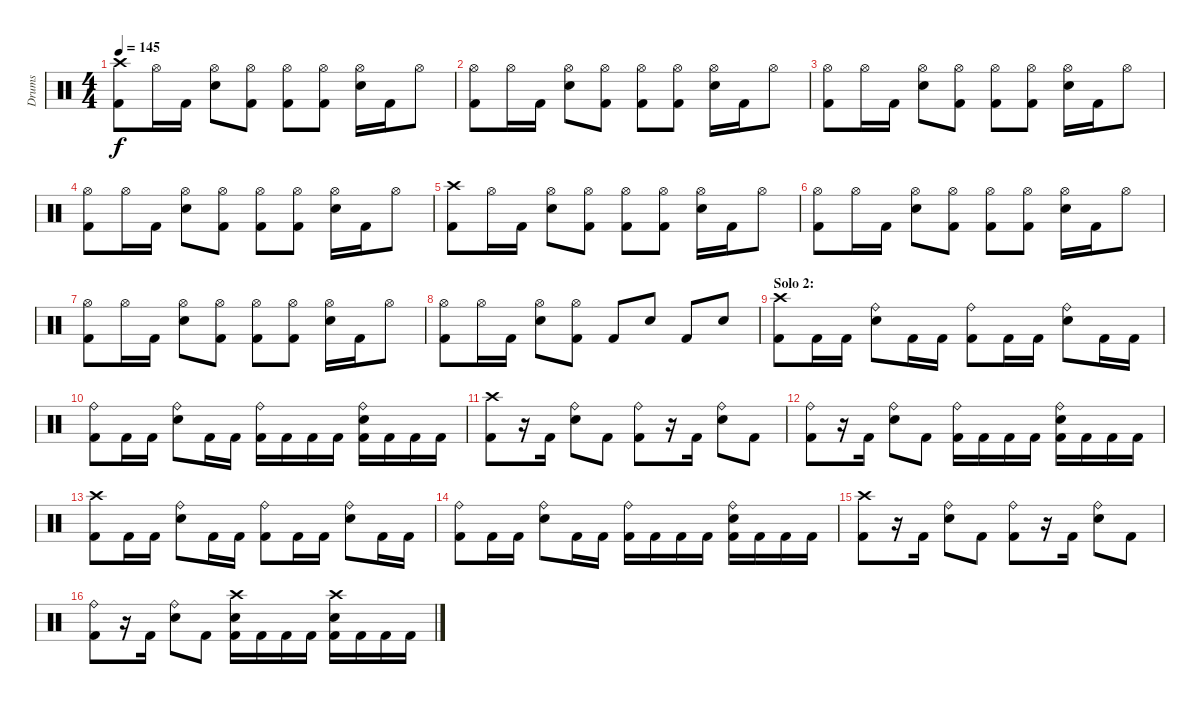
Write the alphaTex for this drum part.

\track ("Drums" "Drums") {instrument percussion}
\staff {score}
\articulation defaults
\ts (4 4)
\tempo 145
\clef neutral
\ks c
("Crash high (hit)" "Kick (hit) 2").8{dy f} "Hi-Hat (open)".16 "Kick (hit) 2".16 ("Hi-Hat (open)" "Snare (hit) 2").8 ("Hi-Hat (open)" "Kick (hit) 2").8 ("Hi-Hat (open)" "Kick (hit) 2").8 ("Hi-Hat (open)" "Kick (hit) 2").8 ("Hi-Hat (open)" "Snare (hit) 2").16 "Kick (hit) 2".16 "Hi-Hat (open)".8 |
("Hi-Hat (open)" "Kick (hit) 2").8 "Hi-Hat (open)".16 "Kick (hit) 2".16 ("Hi-Hat (open)" "Snare (hit) 2").8 ("Hi-Hat (open)" "Kick (hit) 2").8 ("Hi-Hat (open)" "Kick (hit) 2").8 ("Hi-Hat (open)" "Kick (hit) 2").8 ("Hi-Hat (open)" "Snare (hit) 2").16 "Kick (hit) 2".16 "Hi-Hat (open)".8 |
("Hi-Hat (open)" "Kick (hit) 2").8 "Hi-Hat (open)".16 "Kick (hit) 2".16 ("Hi-Hat (open)" "Snare (hit) 2").8 ("Hi-Hat (open)" "Kick (hit) 2").8 ("Hi-Hat (open)" "Kick (hit) 2").8 ("Hi-Hat (open)" "Kick (hit) 2").8 ("Hi-Hat (open)" "Snare (hit) 2").16 "Kick (hit) 2".16 "Hi-Hat (open)".8 |
("Hi-Hat (open)" "Kick (hit) 2").8 "Hi-Hat (open)".16 "Kick (hit) 2".16 ("Hi-Hat (open)" "Snare (hit) 2").8 ("Hi-Hat (open)" "Kick (hit) 2").8 ("Hi-Hat (open)" "Kick (hit) 2").8 ("Hi-Hat (open)" "Kick (hit) 2").8 ("Hi-Hat (open)" "Snare (hit) 2").16 "Kick (hit) 2".16 "Hi-Hat (open)".8 |
("Crash high (hit)" "Kick (hit) 2").8 "Hi-Hat (open)".16 "Kick (hit) 2".16 ("Hi-Hat (open)" "Snare (hit) 2").8 ("Hi-Hat (open)" "Kick (hit) 2").8 ("Hi-Hat (open)" "Kick (hit) 2").8 ("Hi-Hat (open)" "Kick (hit) 2").8 ("Hi-Hat (open)" "Snare (hit) 2").16 "Kick (hit) 2".16 "Hi-Hat (open)".8 |
("Hi-Hat (open)" "Kick (hit) 2").8 "Hi-Hat (open)".16 "Kick (hit) 2".16 ("Hi-Hat (open)" "Snare (hit) 2").8 ("Hi-Hat (open)" "Kick (hit) 2").8 ("Hi-Hat (open)" "Kick (hit) 2").8 ("Hi-Hat (open)" "Kick (hit) 2").8 ("Hi-Hat (open)" "Snare (hit) 2").16 "Kick (hit) 2".16 "Hi-Hat (open)".8 |
("Hi-Hat (open)" "Kick (hit) 2").8 "Hi-Hat (open)".16 "Kick (hit) 2".16 ("Hi-Hat (open)" "Snare (hit) 2").8 ("Hi-Hat (open)" "Kick (hit) 2").8 ("Hi-Hat (open)" "Kick (hit) 2").8 ("Hi-Hat (open)" "Kick (hit) 2").8 ("Hi-Hat (open)" "Snare (hit) 2").16 "Kick (hit) 2".16 "Hi-Hat (open)".8 |
("Hi-Hat (open)" "Kick (hit) 2").8 "Hi-Hat (open)".16 "Kick (hit) 2".16 ("Hi-Hat (open)" "Snare (hit) 2").8 ("Hi-Hat (open)" "Kick (hit) 2").8 "Kick (hit) 2".8 "Snare (hit) 2".8 "Kick (hit) 2".8 "Snare (hit) 2".8 |
\section ("" "Solo 2:")
("Crash high (hit)" "Kick (hit) 2").8 "Kick (hit) 2".16 "Kick (hit) 2".16 ("Ride (bell)" "Snare (hit) 2").8 "Kick (hit) 2".16 "Kick (hit) 2".16 ("Ride (bell)" "Kick (hit) 2").8 "Kick (hit) 2".16 "Kick (hit) 2".16 ("Ride (bell)" "Snare (hit) 2").8 "Kick (hit) 2".16 "Kick (hit) 2".16 |
("Ride (bell)" "Kick (hit) 2").8 "Kick (hit) 2".16 "Kick (hit) 2".16 ("Ride (bell)" "Snare (hit) 2").8 "Kick (hit) 2".16 "Kick (hit) 2".16 ("Ride (bell)" "Kick (hit) 2").16 "Kick (hit) 2".16 "Kick (hit) 2".16 "Kick (hit) 2".16 ("Ride (bell)" "Snare (hit) 2" "Kick (hit) 2").16 "Kick (hit) 2".16 "Kick (hit) 2".16 "Kick (hit) 2".16 |
("Crash high (hit)" "Kick (hit) 2").8 r.16 "Kick (hit) 2".16 ("Ride (bell)" "Snare (hit) 2").8 "Kick (hit) 2".8 ("Ride (bell)" "Kick (hit) 2").8 r.16 "Kick (hit) 2".16 ("Ride (bell)" "Snare (hit) 2").8 "Kick (hit) 2".8 |
("Ride (bell)" "Kick (hit) 2").8 r.16 "Kick (hit) 2".16 ("Ride (bell)" "Snare (hit) 2").8 "Kick (hit) 2".8 ("Ride (bell)" "Kick (hit) 2").16 "Kick (hit) 2".16 "Kick (hit) 2".16 "Kick (hit) 2".16 ("Ride (bell)" "Snare (hit) 2" "Kick (hit) 2").16 "Kick (hit) 2".16 "Kick (hit) 2".16 "Kick (hit) 2".16 |
("Crash high (hit)" "Kick (hit) 2").8 "Kick (hit) 2".16 "Kick (hit) 2".16 ("Ride (bell)" "Snare (hit) 2").8 "Kick (hit) 2".16 "Kick (hit) 2".16 ("Ride (bell)" "Kick (hit) 2").8 "Kick (hit) 2".16 "Kick (hit) 2".16 ("Ride (bell)" "Snare (hit) 2").8 "Kick (hit) 2".16 "Kick (hit) 2".16 |
("Ride (bell)" "Kick (hit) 2").8 "Kick (hit) 2".16 "Kick (hit) 2".16 ("Ride (bell)" "Snare (hit) 2").8 "Kick (hit) 2".16 "Kick (hit) 2".16 ("Ride (bell)" "Kick (hit) 2").16 "Kick (hit) 2".16 "Kick (hit) 2".16 "Kick (hit) 2".16 ("Ride (bell)" "Snare (hit) 2" "Kick (hit) 2").16 "Kick (hit) 2".16 "Kick (hit) 2".16 "Kick (hit) 2".16 |
("Crash high (hit)" "Kick (hit) 2").8 r.16 "Kick (hit) 2".16 ("Ride (bell)" "Snare (hit) 2").8 "Kick (hit) 2".8 ("Ride (bell)" "Kick (hit) 2").8 r.16 "Kick (hit) 2".16 ("Ride (bell)" "Snare (hit) 2").8 "Kick (hit) 2".8 |
("Ride (bell)" "Kick (hit) 2").8 r.16 "Kick (hit) 2".16 ("Ride (bell)" "Snare (hit) 2").8 "Kick (hit) 2".8 ("Crash high (hit)" "Snare (hit) 2" "Kick (hit) 2").16 "Kick (hit) 2".16 "Kick (hit) 2".16 "Kick (hit) 2".16 ("Crash high (hit)" "Snare (hit) 2" "Kick (hit) 2").16 "Kick (hit) 2".16 "Kick (hit) 2".16 "Kick (hit) 2".16
